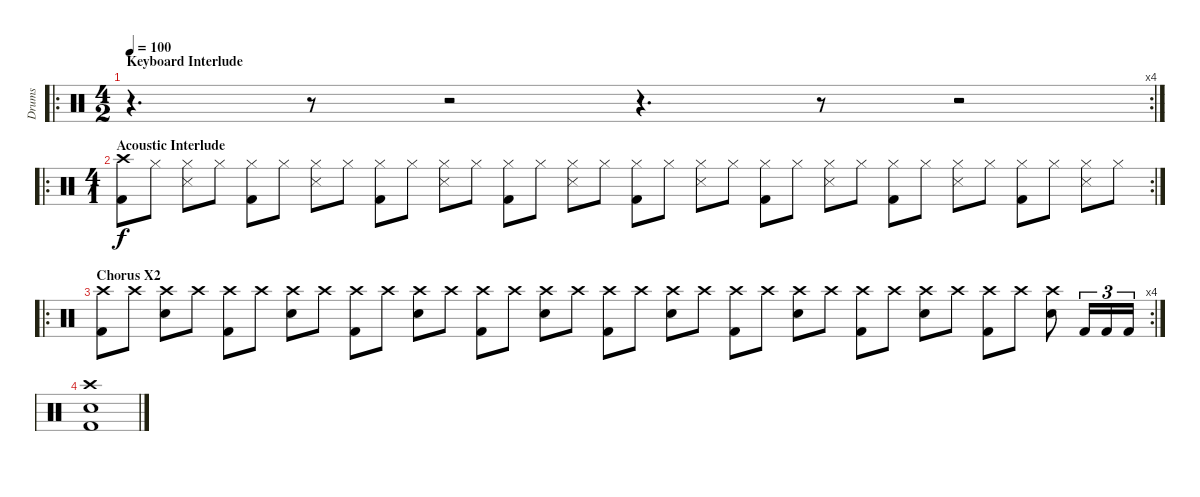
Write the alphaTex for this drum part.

\track ("Drums" "Drums") {instrument percussion}
\staff {score}
\articulation defaults
\ro
\rc 4
\ts (4 2)
\section ("" "Keyboard Interlude")
\tempo 100
\clef neutral
\ks c
r.4{d dy f} r.8 r.2 r.4{d} r.8 r.2 |
\ro
\rc 2
\ts (4 1)
\section ("" "Acoustic Interlude")
("Crash high (hit)" "Kick (hit) 2").8 "Hi-Hat (closed)".8 ("Hi-Hat (closed)" "Snare (side stick) 3").8 "Hi-Hat (closed)".8 ("Hi-Hat (closed)" "Kick (hit) 2").8 "Hi-Hat (closed)".8 ("Hi-Hat (closed)" "Snare (side stick) 3").8 "Hi-Hat (closed)".8 ("Hi-Hat (closed)" "Kick (hit) 2").8 "Hi-Hat (closed)".8 ("Hi-Hat (closed)" "Snare (side stick) 3").8 "Hi-Hat (closed)".8 ("Hi-Hat (closed)" "Kick (hit) 2").8 "Hi-Hat (closed)".8 ("Hi-Hat (closed)" "Snare (side stick) 3").8 "Hi-Hat (closed)".8 ("Hi-Hat (closed)" "Kick (hit) 2").8 "Hi-Hat (closed)".8 ("Hi-Hat (closed)" "Snare (side stick) 3").8 "Hi-Hat (closed)".8 ("Hi-Hat (closed)" "Kick (hit) 2").8 "Hi-Hat (closed)".8 ("Hi-Hat (closed)" "Snare (side stick) 3").8 "Hi-Hat (closed)".8 ("Hi-Hat (closed)" "Kick (hit) 2").8 "Hi-Hat (closed)".8 ("Hi-Hat (closed)" "Snare (side stick) 3").8 "Hi-Hat (closed)".8 ("Hi-Hat (closed)" "Kick (hit) 2").8 "Hi-Hat (closed)".8 ("Hi-Hat (closed)" "Snare (side stick) 3").8 "Hi-Hat (closed)".8 |
\ro
\rc 4
\section ("" "Chorus X2")
("Crash high (hit)" "Kick (hit) 2").8 "Crash high (hit)".8 ("Crash high (hit)" "Electric Snare (hit)").8 "Crash high (hit)".8 ("Crash high (hit)" "Kick (hit) 2").8 "Crash high (hit)".8 ("Crash high (hit)" "Electric Snare (hit)").8 "Crash high (hit)".8 ("Crash high (hit)" "Kick (hit) 2").8 "Crash high (hit)".8 ("Crash high (hit)" "Electric Snare (hit)").8 "Crash high (hit)".8 ("Crash high (hit)" "Kick (hit) 2").8 "Crash high (hit)".8 ("Crash high (hit)" "Electric Snare (hit)").8 "Crash high (hit)".8 ("Crash high (hit)" "Kick (hit) 2").8 "Crash high (hit)".8 ("Crash high (hit)" "Electric Snare (hit)").8 "Crash high (hit)".8 ("Crash high (hit)" "Kick (hit) 2").8 "Crash high (hit)".8 ("Crash high (hit)" "Electric Snare (hit)").8 "Crash high (hit)".8 ("Crash high (hit)" "Kick (hit) 2").8 "Crash high (hit)".8 ("Crash high (hit)" "Electric Snare (hit)").8 "Crash high (hit)".8 ("Crash high (hit)" "Kick (hit) 2").8 "Crash high (hit)".8 ("Crash high (hit)" "Electric Snare (hit)").8 "Kick (hit) 2".16{tu (3 2)} "Kick (hit) 2".16{tu (3 2)} "Kick (hit) 2".16{tu (3 2)} |
("Crash high (hit)" "Electric Snare (hit)" "Kick (hit) 2").1
